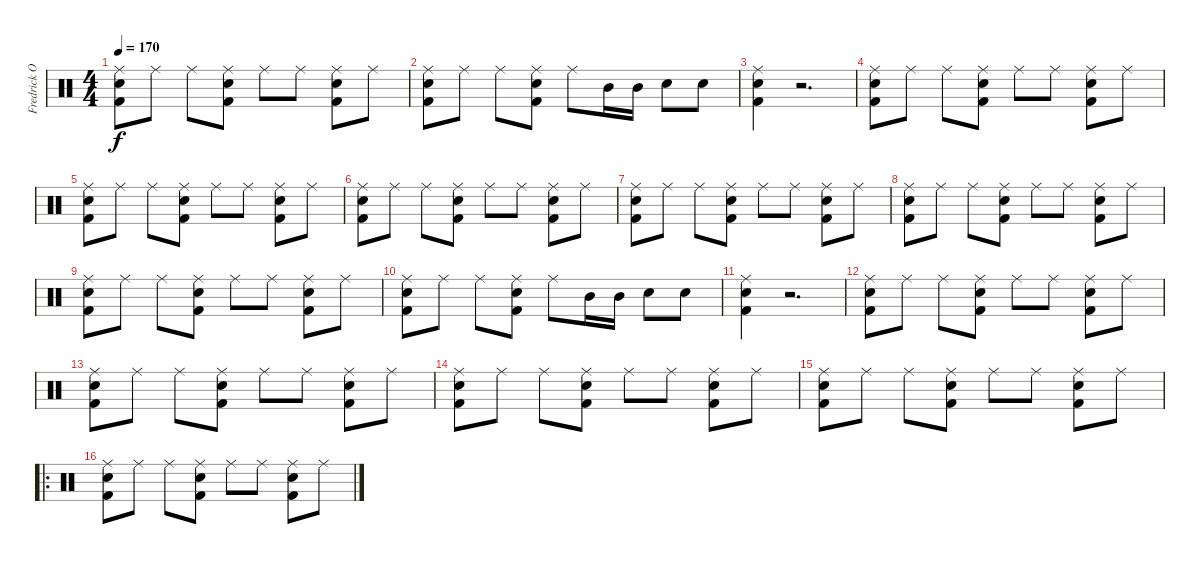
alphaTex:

\track ("Fredrick Oscarsson (Drums)" "Fredrick O") {instrument percussion}
\staff {score}
\articulation defaults
\ts (4 4)
\tempo 170
\clef neutral
\ks c
("Ride (middle)" "Snare (hit) 2" "Kick (hit) 2").8{dy f} "Ride (middle)".8 "Ride (middle)".8 ("Ride (middle)" "Snare (hit) 2" "Kick (hit) 2").8 "Ride (middle)".8 "Ride (middle)".8 ("Ride (middle)" "Snare (hit) 2" "Kick (hit) 2").8 "Ride (middle)".8 |
("Ride (middle)" "Snare (hit) 2" "Kick (hit) 2").8 "Ride (middle)".8 "Ride (middle)".8 ("Ride (middle)" "Snare (hit) 2" "Kick (hit) 2").8 "Ride (middle)".8 "Mid Tom (hit)".16 "Mid Tom (hit)".16 "Snare (hit) 2".8 "Snare (hit) 2".8 |
("Ride (middle)" "Snare (hit) 2" "Kick (hit) 2").4 r.2{d} |
("Ride (middle)" "Snare (hit) 2" "Kick (hit) 2").8 "Ride (middle)".8 "Ride (middle)".8 ("Ride (middle)" "Snare (hit) 2" "Kick (hit) 2").8 "Ride (middle)".8 "Ride (middle)".8 ("Ride (middle)" "Snare (hit) 2" "Kick (hit) 2").8 "Ride (middle)".8 |
("Ride (middle)" "Snare (hit) 2" "Kick (hit) 2").8 "Ride (middle)".8 "Ride (middle)".8 ("Ride (middle)" "Snare (hit) 2" "Kick (hit) 2").8 "Ride (middle)".8 "Ride (middle)".8 ("Ride (middle)" "Snare (hit) 2" "Kick (hit) 2").8 "Ride (middle)".8 |
("Ride (middle)" "Snare (hit) 2" "Kick (hit) 2").8 "Ride (middle)".8 "Ride (middle)".8 ("Ride (middle)" "Snare (hit) 2" "Kick (hit) 2").8 "Ride (middle)".8 "Ride (middle)".8 ("Ride (middle)" "Snare (hit) 2" "Kick (hit) 2").8 "Ride (middle)".8 |
("Ride (middle)" "Snare (hit) 2" "Kick (hit) 2").8 "Ride (middle)".8 "Ride (middle)".8 ("Ride (middle)" "Snare (hit) 2" "Kick (hit) 2").8 "Ride (middle)".8 "Ride (middle)".8 ("Ride (middle)" "Snare (hit) 2" "Kick (hit) 2").8 "Ride (middle)".8 |
("Ride (middle)" "Snare (hit) 2" "Kick (hit) 2").8 "Ride (middle)".8 "Ride (middle)".8 ("Ride (middle)" "Snare (hit) 2" "Kick (hit) 2").8 "Ride (middle)".8 "Ride (middle)".8 ("Ride (middle)" "Snare (hit) 2" "Kick (hit) 2").8 "Ride (middle)".8 |
("Ride (middle)" "Snare (hit) 2" "Kick (hit) 2").8 "Ride (middle)".8 "Ride (middle)".8 ("Ride (middle)" "Snare (hit) 2" "Kick (hit) 2").8 "Ride (middle)".8 "Ride (middle)".8 ("Ride (middle)" "Snare (hit) 2" "Kick (hit) 2").8 "Ride (middle)".8 |
("Ride (middle)" "Snare (hit) 2" "Kick (hit) 2").8 "Ride (middle)".8 "Ride (middle)".8 ("Ride (middle)" "Snare (hit) 2" "Kick (hit) 2").8 "Ride (middle)".8 "Mid Tom (hit)".16 "Mid Tom (hit)".16 "Snare (hit) 2".8 "Snare (hit) 2".8 |
("Ride (middle)" "Snare (hit) 2" "Kick (hit) 2").4 r.2{d} |
("Ride (middle)" "Snare (hit) 2" "Kick (hit) 2").8 "Ride (middle)".8 "Ride (middle)".8 ("Ride (middle)" "Snare (hit) 2" "Kick (hit) 2").8 "Ride (middle)".8 "Ride (middle)".8 ("Ride (middle)" "Snare (hit) 2" "Kick (hit) 2").8 "Ride (middle)".8 |
("Ride (middle)" "Snare (hit) 2" "Kick (hit) 2").8 "Ride (middle)".8 "Ride (middle)".8 ("Ride (middle)" "Snare (hit) 2" "Kick (hit) 2").8 "Ride (middle)".8 "Ride (middle)".8 ("Ride (middle)" "Snare (hit) 2" "Kick (hit) 2").8 "Ride (middle)".8 |
("Ride (middle)" "Snare (hit) 2" "Kick (hit) 2").8 "Ride (middle)".8 "Ride (middle)".8 ("Ride (middle)" "Snare (hit) 2" "Kick (hit) 2").8 "Ride (middle)".8 "Ride (middle)".8 ("Ride (middle)" "Snare (hit) 2" "Kick (hit) 2").8 "Ride (middle)".8 |
("Ride (middle)" "Snare (hit) 2" "Kick (hit) 2").8 "Ride (middle)".8 "Ride (middle)".8 ("Ride (middle)" "Snare (hit) 2" "Kick (hit) 2").8 "Ride (middle)".8 "Ride (middle)".8 ("Ride (middle)" "Snare (hit) 2" "Kick (hit) 2").8 "Ride (middle)".8 |
\ro
("Ride (middle)" "Snare (hit) 2" "Kick (hit) 2").8 "Ride (middle)".8 "Ride (middle)".8 ("Ride (middle)" "Snare (hit) 2" "Kick (hit) 2").8 "Ride (middle)".8 "Ride (middle)".8 ("Ride (middle)" "Snare (hit) 2" "Kick (hit) 2").8 "Ride (middle)".8
